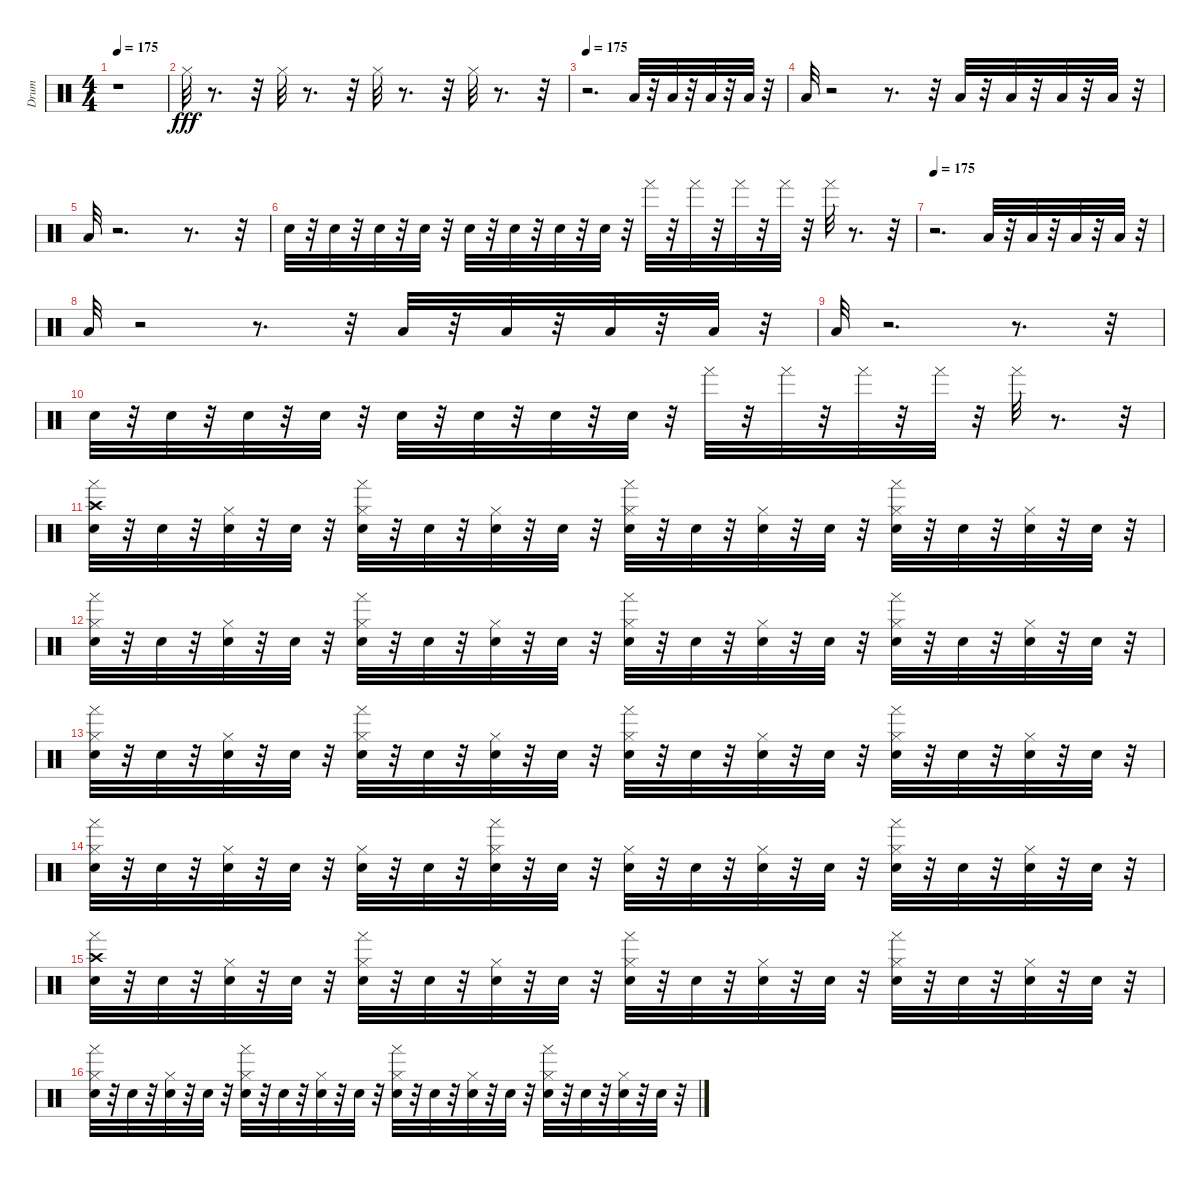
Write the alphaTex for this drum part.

\track ("Drum" "Drum") {instrument percussion}
\staff {score}
\articulation defaults
\ts (4 4)
\tempo 175
\clef neutral
\ks c
r.1{dy fff} |
"Hi-Hat (closed)".32 r.8{d} r.32 "Hi-Hat (closed)".32 r.8{d} r.32 "Hi-Hat (closed)".32 r.8{d} r.32 "Hi-Hat (closed)".32 r.8{d} r.32 |
\tempo 175
r.2{d} "Low Floor Tom (hit)".32 r.32 "Low Floor Tom (hit)".32 r.32 "Low Floor Tom (hit)".32 r.32 "Low Floor Tom (hit)".32 r.32 |
"Low Floor Tom (hit)".32 r.2 r.8{d} r.32 "Low Floor Tom (hit)".32 r.32 "Low Floor Tom (hit)".32 r.32 "Low Floor Tom (hit)".32 r.32 "Low Floor Tom (hit)".32 r.32 |
"Low Floor Tom (hit)".32 r.2{d} r.8{d} r.32 |
"Snare (hit)".32 r.32 "Snare (hit)".32 r.32 "Snare (hit)".32 r.32 "Snare (hit)".32 r.32 "Snare (hit)".32 r.32 "Snare (hit)".32 r.32 "Snare (hit)".32 r.32 "Snare (hit)".32 r.32 "Tambourine (hand)".32 r.32 "Tambourine (hand)".32 r.32 "Tambourine (hand)".32 r.32 "Tambourine (hand)".32 r.32 "Tambourine (hand)".32 r.8{d} r.32 |
\tempo 175
r.2{d} "Low Floor Tom (hit)".32 r.32 "Low Floor Tom (hit)".32 r.32 "Low Floor Tom (hit)".32 r.32 "Low Floor Tom (hit)".32 r.32 |
"Low Floor Tom (hit)".32 r.2 r.8{d} r.32 "Low Floor Tom (hit)".32 r.32 "Low Floor Tom (hit)".32 r.32 "Low Floor Tom (hit)".32 r.32 "Low Floor Tom (hit)".32 r.32 |
"Low Floor Tom (hit)".32 r.2{d} r.8{d} r.32 |
"Snare (hit)".32 r.32 "Snare (hit)".32 r.32 "Snare (hit)".32 r.32 "Snare (hit)".32 r.32 "Snare (hit)".32 r.32 "Snare (hit)".32 r.32 "Snare (hit)".32 r.32 "Snare (hit)".32 r.32 "Tambourine (hand)".32 r.32 "Tambourine (hand)".32 r.32 "Tambourine (hand)".32 r.32 "Tambourine (hand)".32 r.32 "Tambourine (hand)".32 r.8{d} r.32 |
("Crash high (hit)" "Tambourine (hand)" "Snare (hit)").32 r.32 "Snare (hit)".32 r.32 ("Hi-Hat (closed)" "Snare (hit)").32 r.32 "Snare (hit)".32 r.32 ("Hi-Hat (closed)" "Tambourine (hand)" "Snare (hit)").32 r.32 "Snare (hit)".32 r.32 ("Hi-Hat (closed)" "Snare (hit)").32 r.32 "Snare (hit)".32 r.32 ("Hi-Hat (closed)" "Tambourine (hand)" "Snare (hit)").32 r.32 "Snare (hit)".32 r.32 ("Hi-Hat (closed)" "Snare (hit)").32 r.32 "Snare (hit)".32 r.32 ("Hi-Hat (closed)" "Tambourine (hand)" "Snare (hit)").32 r.32 "Snare (hit)".32 r.32 ("Hi-Hat (closed)" "Snare (hit)").32 r.32 "Snare (hit)".32 r.32 |
("Hi-Hat (closed)" "Tambourine (hand)" "Snare (hit)").32 r.32 "Snare (hit)".32 r.32 ("Hi-Hat (closed)" "Snare (hit)").32 r.32 "Snare (hit)".32 r.32 ("Hi-Hat (closed)" "Tambourine (hand)" "Snare (hit)").32 r.32 "Snare (hit)".32 r.32 ("Hi-Hat (closed)" "Snare (hit)").32 r.32 "Snare (hit)".32 r.32 ("Hi-Hat (closed)" "Tambourine (hand)" "Snare (hit)").32 r.32 "Snare (hit)".32 r.32 ("Hi-Hat (closed)" "Snare (hit)").32 r.32 "Snare (hit)".32 r.32 ("Hi-Hat (closed)" "Tambourine (hand)" "Snare (hit)").32 r.32 "Snare (hit)".32 r.32 ("Hi-Hat (closed)" "Snare (hit)").32 r.32 "Snare (hit)".32 r.32 |
("Hi-Hat (closed)" "Tambourine (hand)" "Snare (hit)").32 r.32 "Snare (hit)".32 r.32 ("Hi-Hat (closed)" "Snare (hit)").32 r.32 "Snare (hit)".32 r.32 ("Hi-Hat (closed)" "Tambourine (hand)" "Snare (hit)").32 r.32 "Snare (hit)".32 r.32 ("Hi-Hat (closed)" "Snare (hit)").32 r.32 "Snare (hit)".32 r.32 ("Hi-Hat (closed)" "Tambourine (hand)" "Snare (hit)").32 r.32 "Snare (hit)".32 r.32 ("Hi-Hat (closed)" "Snare (hit)").32 r.32 "Snare (hit)".32 r.32 ("Hi-Hat (closed)" "Tambourine (hand)" "Snare (hit)").32 r.32 "Snare (hit)".32 r.32 ("Hi-Hat (closed)" "Snare (hit)").32 r.32 "Snare (hit)".32 r.32 |
("Hi-Hat (closed)" "Tambourine (hand)" "Snare (hit)").32 r.32 "Snare (hit)".32 r.32 ("Hi-Hat (closed)" "Snare (hit)").32 r.32 "Snare (hit)".32 r.32 ("Hi-Hat (closed)" "Snare (hit)").32 r.32 "Snare (hit)".32 r.32 ("Hi-Hat (closed)" "Tambourine (hand)" "Snare (hit)").32 r.32 "Snare (hit)".32 r.32 ("Hi-Hat (closed)" "Snare (hit)").32 r.32 "Snare (hit)".32 r.32 ("Hi-Hat (closed)" "Snare (hit)").32 r.32 "Snare (hit)".32 r.32 ("Hi-Hat (closed)" "Tambourine (hand)" "Snare (hit)").32 r.32 "Snare (hit)".32 r.32 ("Hi-Hat (closed)" "Snare (hit)").32 r.32 "Snare (hit)".32 r.32 |
("Crash high (hit)" "Tambourine (hand)" "Snare (hit)").32 r.32 "Snare (hit)".32 r.32 ("Hi-Hat (closed)" "Snare (hit)").32 r.32 "Snare (hit)".32 r.32 ("Hi-Hat (closed)" "Tambourine (hand)" "Snare (hit)").32 r.32 "Snare (hit)".32 r.32 ("Hi-Hat (closed)" "Snare (hit)").32 r.32 "Snare (hit)".32 r.32 ("Hi-Hat (closed)" "Tambourine (hand)" "Snare (hit)").32 r.32 "Snare (hit)".32 r.32 ("Hi-Hat (closed)" "Snare (hit)").32 r.32 "Snare (hit)".32 r.32 ("Hi-Hat (closed)" "Tambourine (hand)" "Snare (hit)").32 r.32 "Snare (hit)".32 r.32 ("Hi-Hat (closed)" "Snare (hit)").32 r.32 "Snare (hit)".32 r.32 |
("Hi-Hat (closed)" "Tambourine (hand)" "Snare (hit)").32 r.32 "Snare (hit)".32 r.32 ("Hi-Hat (closed)" "Snare (hit)").32 r.32 "Snare (hit)".32 r.32 ("Hi-Hat (closed)" "Tambourine (hand)" "Snare (hit)").32 r.32 "Snare (hit)".32 r.32 ("Hi-Hat (closed)" "Snare (hit)").32 r.32 "Snare (hit)".32 r.32 ("Hi-Hat (closed)" "Tambourine (hand)" "Snare (hit)").32 r.32 "Snare (hit)".32 r.32 ("Hi-Hat (closed)" "Snare (hit)").32 r.32 "Snare (hit)".32 r.32 ("Hi-Hat (closed)" "Tambourine (hand)" "Snare (hit)").32 r.32 "Snare (hit)".32 r.32 ("Hi-Hat (closed)" "Snare (hit)").32 r.32 "Snare (hit)".32 r.32
